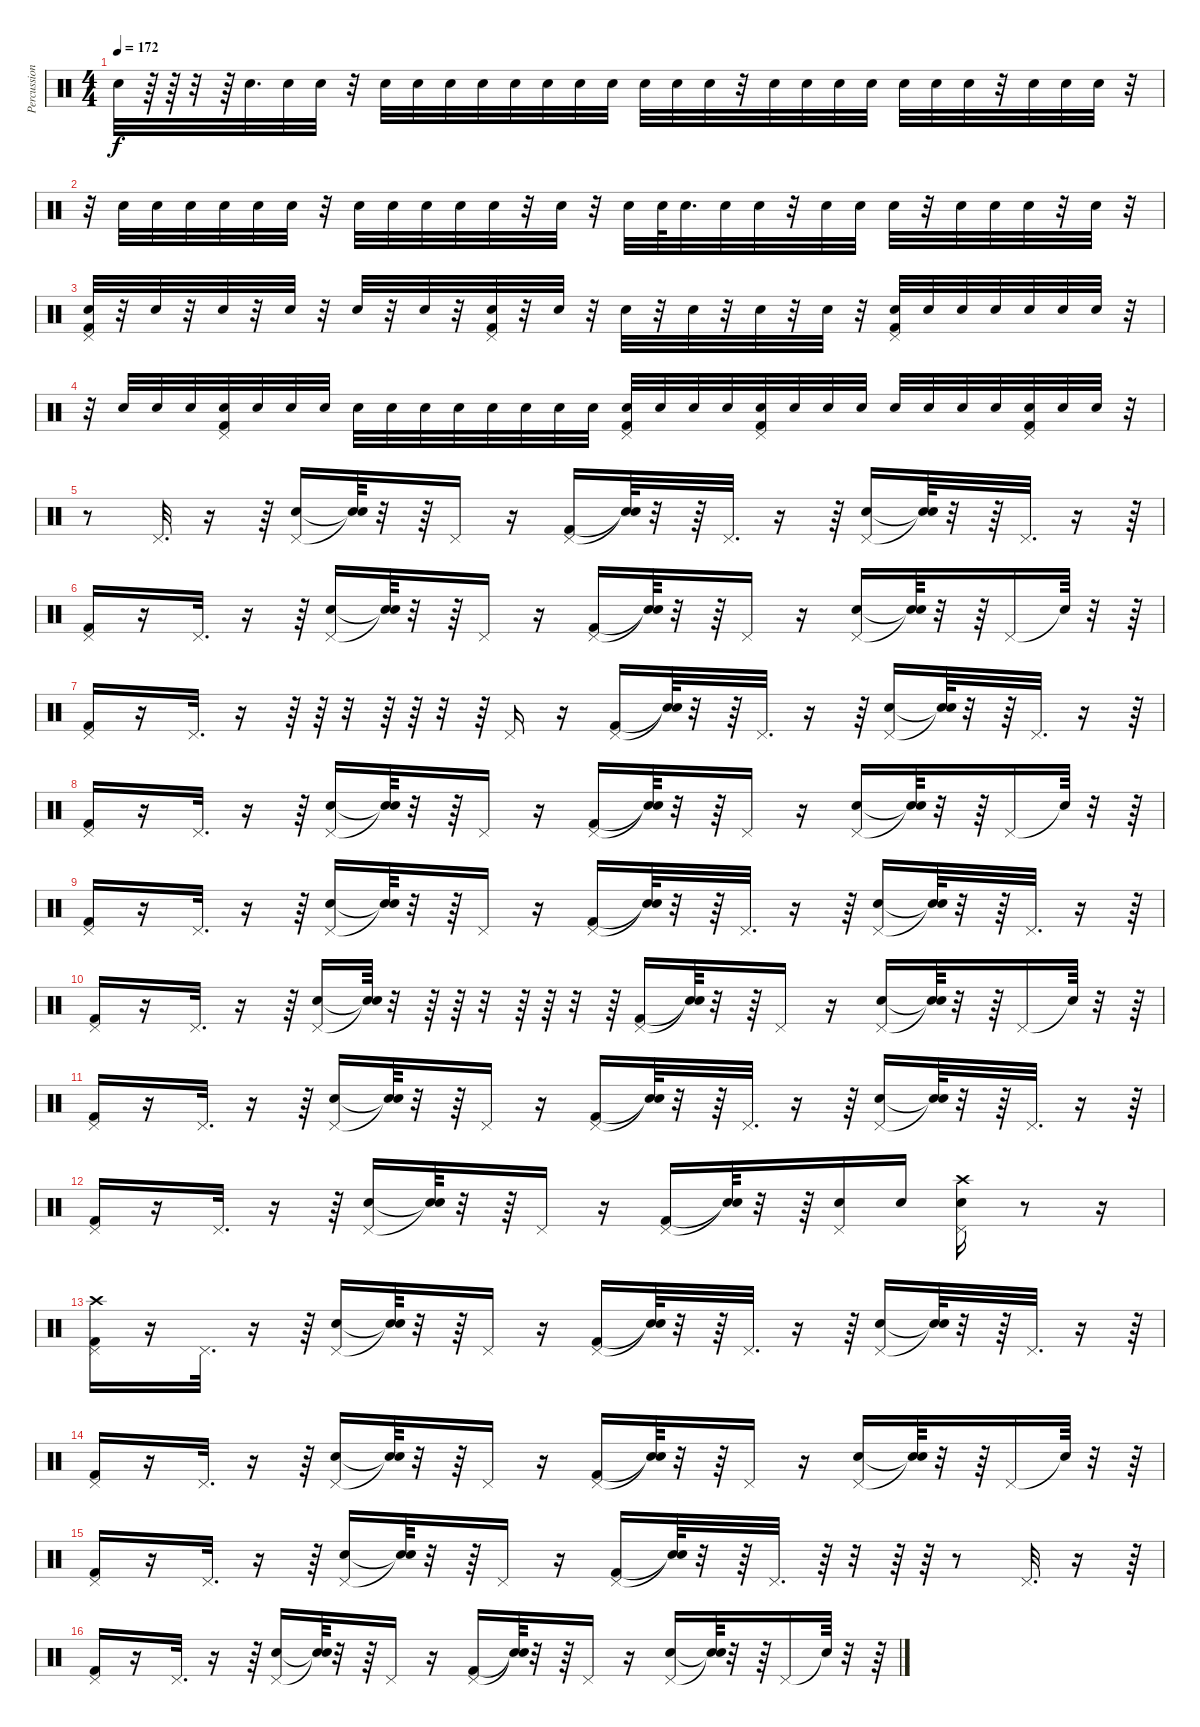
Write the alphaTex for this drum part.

\track ("Percussions" "Percussion") {instrument percussion}
\staff {score}
\articulation defaults
\ts (4 4)
\tempo 172
\clef neutral
\ks c "Snare (hit) 2".32{dy f}
r.64 r.64 r.32 r.64 "Snare (hit) 2".32{d} "Snare (hit) 2".32 "Snare (hit) 2".32 r.32 "Snare (hit) 2".32 "Snare (hit) 2".32 "Snare (hit) 2".32 "Snare (hit) 2".32 "Snare (hit) 2".32 "Snare (hit) 2".32 "Snare (hit) 2".32 "Snare (hit) 2".32 "Snare (hit) 2".32 "Snare (hit) 2".32 "Snare (hit) 2".32 r.32 "Snare (hit) 2".32 "Snare (hit) 2".32 "Snare (hit) 2".32 "Snare (hit) 2".32 "Snare (hit) 2".32 "Snare (hit) 2".32 "Snare (hit) 2".32 r.32 "Snare (hit) 2".32 "Snare (hit) 2".32 "Snare (hit) 2".32 r.32 |
r.32 "Snare (hit) 2".32 "Snare (hit) 2".32 "Snare (hit) 2".32 "Snare (hit) 2".32 "Snare (hit) 2".32 "Snare (hit) 2".32 r.32 "Snare (hit) 2".32 "Snare (hit) 2".32 "Snare (hit) 2".32 "Snare (hit) 2".32 "Snare (hit) 2".32 r.32 "Snare (hit) 2".32 r.32 "Snare (hit) 2".32 "Snare (hit) 2".64 "Snare (hit) 2".32{d} "Snare (hit) 2".32 "Snare (hit) 2".32 r.32 "Snare (hit) 2".32 "Snare (hit) 2".32 "Snare (hit) 2".32 r.32 "Snare (hit) 2".32 "Snare (hit) 2".32 "Snare (hit) 2".32 r.32 "Snare (hit) 2".32 r.32 |
("Snare (hit) 2" "Kick (hit) 2" "Pedal Hi-Hat (hit)").32 r.32 "Snare (hit) 2".32 r.32 "Snare (hit) 2".32 r.32 "Snare (hit) 2".32 r.32 "Snare (hit) 2".32 r.32 "Snare (hit) 2".32 r.32 ("Snare (hit) 2" "Kick (hit) 2" "Pedal Hi-Hat (hit)").32 r.32 "Snare (hit) 2".32 r.32 "Snare (hit) 2".32 r.32 "Snare (hit) 2".32 r.32 "Snare (hit) 2".32 r.32 "Snare (hit) 2".32 r.32 ("Snare (hit) 2" "Kick (hit) 2" "Pedal Hi-Hat (hit)").32 "Snare (hit) 2".32 "Snare (hit) 2".32 "Snare (hit) 2".32 "Snare (hit) 2".32 "Snare (hit) 2".32 "Snare (hit) 2".32 r.32 |
r.32 "Snare (hit) 2".32 "Snare (hit) 2".32 "Snare (hit) 2".32 ("Snare (hit) 2" "Kick (hit) 2" "Pedal Hi-Hat (hit)").32 "Snare (hit) 2".32 "Snare (hit) 2".32 "Snare (hit) 2".32 "Snare (hit) 2".32 "Snare (hit) 2".32 "Snare (hit) 2".32 "Snare (hit) 2".32 "Snare (hit) 2".32 "Snare (hit) 2".32 "Snare (hit) 2".32 "Snare (hit) 2".32 ("Snare (hit) 2" "Kick (hit) 2" "Pedal Hi-Hat (hit)").32 "Snare (hit) 2".32 "Snare (hit) 2".32 "Snare (hit) 2".32 ("Snare (hit) 2" "Kick (hit) 2" "Pedal Hi-Hat (hit)").32 "Snare (hit) 2".32 "Snare (hit) 2".32 "Snare (hit) 2".32 "Snare (hit) 2".32 "Snare (hit) 2".32 "Snare (hit) 2".32 "Snare (hit) 2".32 ("Snare (hit) 2" "Pedal Hi-Hat (hit)" "Kick (hit) 2").32 "Snare (hit) 2".32 "Snare (hit) 2".32 r.32 |
r.8 "Pedal Hi-Hat (hit)".32{d} r.16 r.64 ("Pedal Hi-Hat (hit)" "Snare (hit) 2").16 ("Snare (hit)"{t} "Snare (hit)"{t}).64 r.32 r.64 "Pedal Hi-Hat (hit)".16 r.16 ("Pedal Hi-Hat (hit)" "Kick (hit) 2").16 ("Snare (hit)"{t} "Snare (hit)"{t}).64 r.32 r.64 "Pedal Hi-Hat (hit)".32{d} r.16 r.64 ("Pedal Hi-Hat (hit)" "Snare (hit) 2").16 ("Snare (hit)"{t} "Snare (hit)"{t}).64 r.32 r.64 "Pedal Hi-Hat (hit)".32{d} r.16 r.64 |
("Pedal Hi-Hat (hit)" "Kick (hit) 2").16 r.16 "Pedal Hi-Hat (hit)".32{d} r.16 r.64 ("Pedal Hi-Hat (hit)" "Snare (hit) 2").16 ("Snare (hit)"{t} "Snare (hit)"{t}).64 r.32 r.64 "Pedal Hi-Hat (hit)".16 r.16 ("Pedal Hi-Hat (hit)" "Kick (hit) 2").16 ("Snare (hit)"{t} "Snare (hit)"{t}).64 r.32 r.64 "Pedal Hi-Hat (hit)".16 r.16 ("Pedal Hi-Hat (hit)" "Snare (hit) 2").16 ("Snare (hit)"{t} "Snare (hit)"{t}).64 r.32 r.64 "Pedal Hi-Hat (hit)".16 "Snare (hit)"{t}.64 r.32 r.64 |
("Pedal Hi-Hat (hit)" "Kick (hit) 2").16 r.16 "Pedal Hi-Hat (hit)".32{d} r.16 r.64 r.64 r.32 r.64 r.64 r.32 r.64 "Pedal Hi-Hat (hit)".16 r.16 ("Pedal Hi-Hat (hit)" "Kick (hit) 2").16 ("Snare (hit)"{t} "Snare (hit)"{t}).64 r.32 r.64 "Pedal Hi-Hat (hit)".32{d} r.16 r.64 ("Pedal Hi-Hat (hit)" "Snare (hit) 2").16 ("Snare (hit)"{t} "Snare (hit)"{t}).64 r.32 r.64 "Pedal Hi-Hat (hit)".32{d} r.16 r.64 |
("Pedal Hi-Hat (hit)" "Kick (hit) 2").16 r.16 "Pedal Hi-Hat (hit)".32{d} r.16 r.64 ("Pedal Hi-Hat (hit)" "Snare (hit) 2").16 ("Snare (hit)"{t} "Snare (hit)"{t}).64 r.32 r.64 "Pedal Hi-Hat (hit)".16 r.16 ("Pedal Hi-Hat (hit)" "Kick (hit) 2").16 ("Snare (hit)"{t} "Snare (hit)"{t}).64 r.32 r.64 "Pedal Hi-Hat (hit)".16 r.16 ("Pedal Hi-Hat (hit)" "Snare (hit) 2").16 ("Snare (hit)"{t} "Snare (hit)"{t}).64 r.32 r.64 "Pedal Hi-Hat (hit)".16 "Snare (hit)"{t}.64 r.32 r.64 |
("Pedal Hi-Hat (hit)" "Kick (hit) 2").16 r.16 "Pedal Hi-Hat (hit)".32{d} r.16 r.64 ("Pedal Hi-Hat (hit)" "Snare (hit) 2").16 ("Snare (hit)"{t} "Snare (hit)"{t}).64 r.32 r.64 "Pedal Hi-Hat (hit)".16 r.16 ("Pedal Hi-Hat (hit)" "Kick (hit) 2").16 ("Snare (hit)"{t} "Snare (hit)"{t}).64 r.32 r.64 "Pedal Hi-Hat (hit)".32{d} r.16 r.64 ("Pedal Hi-Hat (hit)" "Snare (hit) 2").16 ("Snare (hit)"{t} "Snare (hit)"{t}).64 r.32 r.64 "Pedal Hi-Hat (hit)".32{d} r.16 r.64 |
("Pedal Hi-Hat (hit)" "Kick (hit) 2").16 r.16 "Pedal Hi-Hat (hit)".32{d} r.16 r.64 ("Pedal Hi-Hat (hit)" "Snare (hit) 2").16 ("Snare (hit)"{t} "Snare (hit)"{t}).64 r.32 r.64 r.64 r.32 r.64 r.64 r.32 r.64 ("Pedal Hi-Hat (hit)" "Kick (hit) 2").16 ("Snare (hit)"{t} "Snare (hit)"{t}).64 r.32 r.64 "Pedal Hi-Hat (hit)".16 r.16 ("Pedal Hi-Hat (hit)" "Snare (hit) 2").16 ("Snare (hit)"{t} "Snare (hit)"{t}).64 r.32 r.64 "Pedal Hi-Hat (hit)".16 "Snare (hit)"{t}.64 r.32 r.64 |
("Pedal Hi-Hat (hit)" "Kick (hit) 2").16 r.16 "Pedal Hi-Hat (hit)".32{d} r.16 r.64 ("Pedal Hi-Hat (hit)" "Snare (hit) 2").16 ("Snare (hit)"{t} "Snare (hit)"{t}).64 r.32 r.64 "Pedal Hi-Hat (hit)".16 r.16 ("Pedal Hi-Hat (hit)" "Kick (hit) 2").16 ("Snare (hit)"{t} "Snare (hit)"{t}).64 r.32 r.64 "Pedal Hi-Hat (hit)".32{d} r.16 r.64 ("Pedal Hi-Hat (hit)" "Snare (hit) 2").16 ("Snare (hit)"{t} "Snare (hit)"{t}).64 r.32 r.64 "Pedal Hi-Hat (hit)".32{d} r.16 r.64 |
("Pedal Hi-Hat (hit)" "Kick (hit) 2").16 r.16 "Pedal Hi-Hat (hit)".32{d} r.16 r.64 ("Pedal Hi-Hat (hit)" "Snare (hit) 2").16 ("Snare (hit)"{t} "Snare (hit)"{t}).64 r.32 r.64 "Pedal Hi-Hat (hit)".16 r.16 ("Pedal Hi-Hat (hit)" "Kick (hit) 2").16 ("Snare (hit)"{t} "Snare (hit)"{t}).64 r.32 r.64 ("Pedal Hi-Hat (hit)" "Snare (hit) 2").16 "Snare (hit) 2".16 ("Crash high (hit)" "Pedal Hi-Hat (hit)" "Snare (hit) 2").16 r.8 r.16 |
("Pedal Hi-Hat (hit)" "Crash high (hit)" "Kick (hit) 2").16 r.16 "Pedal Hi-Hat (hit)".32{d} r.16 r.64 ("Pedal Hi-Hat (hit)" "Snare (hit) 2").16 ("Snare (hit)"{t} "Snare (hit)"{t}).64 r.32 r.64 "Pedal Hi-Hat (hit)".16 r.16 ("Pedal Hi-Hat (hit)" "Kick (hit) 2").16 ("Snare (hit)"{t} "Snare (hit)"{t}).64 r.32 r.64 "Pedal Hi-Hat (hit)".32{d} r.16 r.64 ("Pedal Hi-Hat (hit)" "Snare (hit) 2").16 ("Snare (hit)"{t} "Snare (hit)"{t}).64 r.32 r.64 "Pedal Hi-Hat (hit)".32{d} r.16 r.64 |
("Pedal Hi-Hat (hit)" "Kick (hit) 2").16 r.16 "Pedal Hi-Hat (hit)".32{d} r.16 r.64 ("Pedal Hi-Hat (hit)" "Snare (hit) 2").16 ("Snare (hit)"{t} "Snare (hit)"{t}).64 r.32 r.64 "Pedal Hi-Hat (hit)".16 r.16 ("Pedal Hi-Hat (hit)" "Kick (hit) 2").16 ("Snare (hit)"{t} "Snare (hit)"{t}).64 r.32 r.64 "Pedal Hi-Hat (hit)".16 r.16 ("Pedal Hi-Hat (hit)" "Snare (hit) 2").16 ("Snare (hit)"{t} "Snare (hit)"{t}).64 r.32 r.64 "Pedal Hi-Hat (hit)".16 "Snare (hit)"{t}.64 r.32 r.64 |
("Pedal Hi-Hat (hit)" "Kick (hit) 2").16 r.16 "Pedal Hi-Hat (hit)".32{d} r.16 r.64 ("Pedal Hi-Hat (hit)" "Snare (hit) 2").16 ("Snare (hit)"{t} "Snare (hit)"{t}).64 r.32 r.64 "Pedal Hi-Hat (hit)".16 r.16 ("Pedal Hi-Hat (hit)" "Kick (hit) 2").16 ("Snare (hit)"{t} "Snare (hit)"{t}).64 r.32 r.64 "Pedal Hi-Hat (hit)".32{d} r.64 r.32 r.64 r.64 r.8 "Pedal Hi-Hat (hit)".32{d} r.16 r.64 |
("Pedal Hi-Hat (hit)" "Kick (hit) 2").16 r.16 "Pedal Hi-Hat (hit)".32{d} r.16 r.64 ("Pedal Hi-Hat (hit)" "Snare (hit) 2").16 ("Snare (hit)"{t} "Snare (hit)"{t}).64 r.32 r.64 "Pedal Hi-Hat (hit)".16 r.16 ("Pedal Hi-Hat (hit)" "Kick (hit) 2").16 ("Snare (hit)"{t} "Snare (hit)"{t}).64 r.32 r.64 "Pedal Hi-Hat (hit)".16 r.16 ("Pedal Hi-Hat (hit)" "Snare (hit) 2").16 ("Snare (hit)"{t} "Snare (hit)"{t}).64 r.32 r.64 "Pedal Hi-Hat (hit)".16 "Snare (hit)"{t}.64 r.32 r.64
